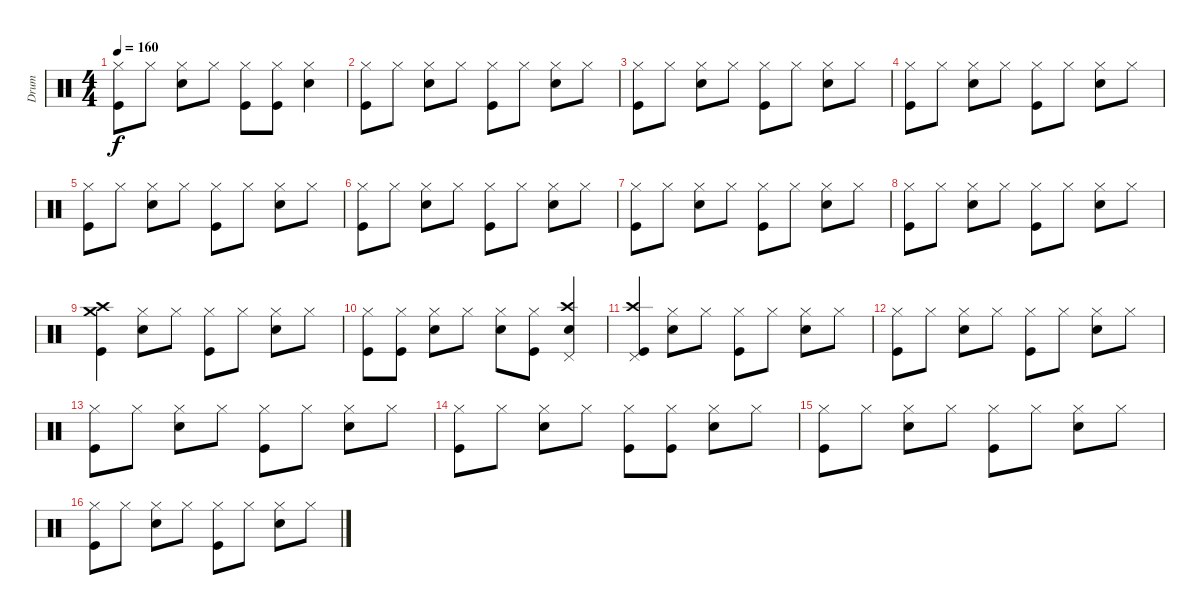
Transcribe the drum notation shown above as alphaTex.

\track ("Drum" "Drum") {instrument percussion}
\staff {score}
\articulation defaults
\ts (4 4)
\tempo 160
\clef neutral
\ks c
("Hi-Hat (closed)" "Kick (hit)").8{dy f} "Hi-Hat (closed)".8 ("Hi-Hat (closed)" "Snare (hit) 2").8 "Hi-Hat (closed)".8 ("Hi-Hat (closed)" "Kick (hit)").8 ("Hi-Hat (closed)" "Kick (hit)").8 ("Hi-Hat (closed)" "Snare (hit) 2").4 |
("Hi-Hat (closed)" "Kick (hit)").8 "Hi-Hat (closed)".8 ("Hi-Hat (closed)" "Snare (hit) 2").8 "Hi-Hat (closed)".8 ("Hi-Hat (closed)" "Kick (hit)").8 "Hi-Hat (closed)".8 ("Hi-Hat (closed)" "Snare (hit) 2").8 "Hi-Hat (closed)".8 |
("Hi-Hat (closed)" "Kick (hit)").8 "Hi-Hat (closed)".8 ("Hi-Hat (closed)" "Snare (hit) 2").8 "Hi-Hat (closed)".8 ("Hi-Hat (closed)" "Kick (hit)").8 "Hi-Hat (closed)".8 ("Hi-Hat (closed)" "Snare (hit) 2").8 "Hi-Hat (closed)".8 |
("Hi-Hat (closed)" "Kick (hit)").8 "Hi-Hat (closed)".8 ("Hi-Hat (closed)" "Snare (hit) 2").8 "Hi-Hat (closed)".8 ("Hi-Hat (closed)" "Kick (hit)").8 "Hi-Hat (closed)".8 ("Hi-Hat (closed)" "Snare (hit) 2").8 "Hi-Hat (closed)".8 |
("Hi-Hat (closed)" "Kick (hit)").8 "Hi-Hat (closed)".8 ("Hi-Hat (closed)" "Snare (hit) 2").8 "Hi-Hat (closed)".8 ("Hi-Hat (closed)" "Kick (hit)").8 "Hi-Hat (closed)".8 ("Hi-Hat (closed)" "Snare (hit) 2").8 "Hi-Hat (closed)".8 |
("Hi-Hat (closed)" "Kick (hit)").8 "Hi-Hat (closed)".8 ("Hi-Hat (closed)" "Snare (hit) 2").8 "Hi-Hat (closed)".8 ("Hi-Hat (closed)" "Kick (hit)").8 "Hi-Hat (closed)".8 ("Hi-Hat (closed)" "Snare (hit) 2").8 "Hi-Hat (closed)".8 |
("Hi-Hat (closed)" "Kick (hit)").8 "Hi-Hat (closed)".8 ("Hi-Hat (closed)" "Snare (hit) 2").8 "Hi-Hat (closed)".8 ("Hi-Hat (closed)" "Kick (hit)").8 "Hi-Hat (closed)".8 ("Hi-Hat (closed)" "Snare (hit) 2").8 "Hi-Hat (closed)".8 |
("Hi-Hat (closed)" "Kick (hit)").8 "Hi-Hat (closed)".8 ("Hi-Hat (closed)" "Snare (hit) 2").8 "Hi-Hat (closed)".8 ("Hi-Hat (closed)" "Kick (hit)").8 "Hi-Hat (closed)".8 ("Hi-Hat (closed)" "Snare (hit) 2").8 "Hi-Hat (closed)".8 |
("Crash high (hit)" "Crash medium (hit)" "Kick (hit)").4 ("Hi-Hat (closed)" "Snare (hit) 2").8 "Hi-Hat (closed)".8 ("Hi-Hat (closed)" "Kick (hit)").8 "Hi-Hat (closed)".8 ("Hi-Hat (closed)" "Snare (hit) 2").8 "Hi-Hat (closed)".8 |
("Hi-Hat (closed)" "Kick (hit)").8 ("Hi-Hat (closed)" "Kick (hit)").8 ("Hi-Hat (closed)" "Snare (hit) 2").8 "Hi-Hat (closed)".8 ("Hi-Hat (closed)" "Snare (hit) 2").8 ("Hi-Hat (closed)" "Kick (hit)").8 ("Crash high (hit)" "Pedal Hi-Hat (hit)" "Snare (hit) 2").4 |
("Crash high (hit)" "Pedal Hi-Hat (hit)" "Kick (hit)").4 ("Hi-Hat (closed)" "Snare (hit) 2").8 "Hi-Hat (closed)".8 ("Hi-Hat (closed)" "Kick (hit)").8 "Hi-Hat (closed)".8 ("Hi-Hat (closed)" "Snare (hit) 2").8 "Hi-Hat (closed)".8 |
("Hi-Hat (closed)" "Kick (hit)").8 "Hi-Hat (closed)".8 ("Hi-Hat (closed)" "Snare (hit) 2").8 "Hi-Hat (closed)".8 ("Hi-Hat (closed)" "Kick (hit)").8 "Hi-Hat (closed)".8 ("Hi-Hat (closed)" "Snare (hit) 2").8 "Hi-Hat (closed)".8 |
("Hi-Hat (closed)" "Kick (hit)").8 "Hi-Hat (closed)".8 ("Hi-Hat (closed)" "Snare (hit) 2").8 "Hi-Hat (closed)".8 ("Hi-Hat (closed)" "Kick (hit)").8 "Hi-Hat (closed)".8 ("Hi-Hat (closed)" "Snare (hit) 2").8 "Hi-Hat (closed)".8 |
("Hi-Hat (closed)" "Kick (hit)").8 "Hi-Hat (closed)".8 ("Hi-Hat (closed)" "Snare (hit) 2").8 "Hi-Hat (closed)".8 ("Hi-Hat (closed)" "Kick (hit)").8 ("Hi-Hat (closed)" "Kick (hit)").8 ("Hi-Hat (closed)" "Snare (hit) 2").8 "Hi-Hat (closed)".8 |
("Hi-Hat (closed)" "Kick (hit)").8 "Hi-Hat (closed)".8 ("Hi-Hat (closed)" "Snare (hit) 2").8 "Hi-Hat (closed)".8 ("Hi-Hat (closed)" "Kick (hit)").8 "Hi-Hat (closed)".8 ("Hi-Hat (closed)" "Snare (hit) 2").8 "Hi-Hat (closed)".8 |
("Hi-Hat (closed)" "Kick (hit)").8 "Hi-Hat (closed)".8 ("Hi-Hat (closed)" "Snare (hit) 2").8 "Hi-Hat (closed)".8 ("Hi-Hat (closed)" "Kick (hit)").8 "Hi-Hat (closed)".8 ("Hi-Hat (closed)" "Snare (hit) 2").8 "Hi-Hat (closed)".8
